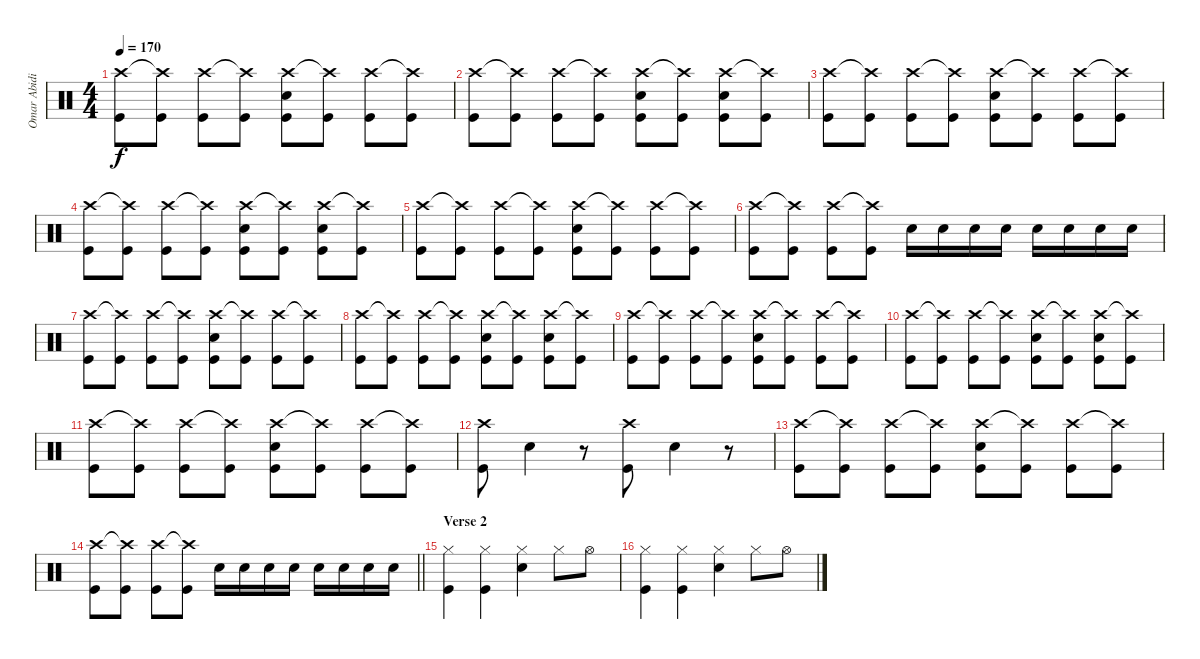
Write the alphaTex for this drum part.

\track ("Omar Abidi" "Omar Abidi") {instrument percussion}
\staff {score}
\articulation defaults
\ts (4 4)
\tempo 170
\clef neutral
\ks c
("Crash high (hit)" "Kick (hit)").8{dy f} ("Crash high (hit)"{t} "Kick (hit)").8 ("Crash high (hit)" "Kick (hit)").8 ("Crash high (hit)"{t} "Kick (hit)").8 ("Crash high (hit)" "Snare (hit) 2" "Kick (hit)").8 ("Crash high (hit)"{t} "Kick (hit)").8 ("Crash high (hit)" "Kick (hit)").8 ("Crash high (hit)"{t} "Kick (hit)").8 |
("Crash high (hit)" "Kick (hit)").8 ("Crash high (hit)"{t} "Kick (hit)").8 ("Crash high (hit)" "Kick (hit)").8 ("Crash high (hit)"{t} "Kick (hit)").8 ("Crash high (hit)" "Snare (hit) 2" "Kick (hit)").8 ("Crash high (hit)"{t} "Kick (hit)").8 ("Crash high (hit)" "Snare (hit) 2" "Kick (hit)").8 ("Crash high (hit)"{t} "Kick (hit)").8 |
("Crash high (hit)" "Kick (hit)").8 ("Crash high (hit)"{t} "Kick (hit)").8 ("Crash high (hit)" "Kick (hit)").8 ("Crash high (hit)"{t} "Kick (hit)").8 ("Crash high (hit)" "Snare (hit) 2" "Kick (hit)").8 ("Crash high (hit)"{t} "Kick (hit)").8 ("Crash high (hit)" "Kick (hit)").8 ("Crash high (hit)"{t} "Kick (hit)").8 |
("Crash high (hit)" "Kick (hit)").8 ("Crash high (hit)"{t} "Kick (hit)").8 ("Crash high (hit)" "Kick (hit)").8 ("Crash high (hit)"{t} "Kick (hit)").8 ("Crash high (hit)" "Snare (hit) 2" "Kick (hit)").8 ("Crash high (hit)"{t} "Kick (hit)").8 ("Crash high (hit)" "Snare (hit) 2" "Kick (hit)").8 ("Crash high (hit)"{t} "Kick (hit)").8 |
("Crash high (hit)" "Kick (hit)").8 ("Crash high (hit)"{t} "Kick (hit)").8 ("Crash high (hit)" "Kick (hit)").8 ("Crash high (hit)"{t} "Kick (hit)").8 ("Crash high (hit)" "Snare (hit) 2" "Kick (hit)").8 ("Crash high (hit)"{t} "Kick (hit)").8 ("Crash high (hit)" "Kick (hit)").8 ("Crash high (hit)"{t} "Kick (hit)").8 |
("Crash high (hit)" "Kick (hit)").8 ("Crash high (hit)"{t} "Kick (hit)").8 ("Crash high (hit)" "Kick (hit)").8 ("Crash high (hit)"{t} "Kick (hit)").8 "Snare (hit) 2".16 "Snare (hit) 2".16 "Snare (hit) 2".16 "Snare (hit) 2".16 "Snare (hit) 2".16 "Snare (hit) 2".16 "Snare (hit) 2".16 "Snare (hit) 2".16 |
("Crash high (hit)" "Kick (hit)").8 ("Crash high (hit)"{t} "Kick (hit)").8 ("Crash high (hit)" "Kick (hit)").8 ("Crash high (hit)"{t} "Kick (hit)").8 ("Crash high (hit)" "Snare (hit) 2" "Kick (hit)").8 ("Crash high (hit)"{t} "Kick (hit)").8 ("Crash high (hit)" "Kick (hit)").8 ("Crash high (hit)"{t} "Kick (hit)").8 |
("Crash high (hit)" "Kick (hit)").8 ("Crash high (hit)"{t} "Kick (hit)").8 ("Crash high (hit)" "Kick (hit)").8 ("Crash high (hit)"{t} "Kick (hit)").8 ("Crash high (hit)" "Snare (hit) 2" "Kick (hit)").8 ("Crash high (hit)"{t} "Kick (hit)").8 ("Crash high (hit)" "Snare (hit) 2" "Kick (hit)").8 ("Crash high (hit)"{t} "Kick (hit)").8 |
("Crash high (hit)" "Kick (hit)").8 ("Crash high (hit)"{t} "Kick (hit)").8 ("Crash high (hit)" "Kick (hit)").8 ("Crash high (hit)"{t} "Kick (hit)").8 ("Crash high (hit)" "Snare (hit) 2" "Kick (hit)").8 ("Crash high (hit)"{t} "Kick (hit)").8 ("Crash high (hit)" "Kick (hit)").8 ("Crash high (hit)"{t} "Kick (hit)").8 |
("Crash high (hit)" "Kick (hit)").8 ("Crash high (hit)"{t} "Kick (hit)").8 ("Crash high (hit)" "Kick (hit)").8 ("Crash high (hit)"{t} "Kick (hit)").8 ("Crash high (hit)" "Snare (hit) 2" "Kick (hit)").8 ("Crash high (hit)"{t} "Kick (hit)").8 ("Crash high (hit)" "Snare (hit) 2" "Kick (hit)").8 ("Crash high (hit)"{t} "Kick (hit)").8 |
("Crash high (hit)" "Kick (hit)").8 ("Crash high (hit)"{t} "Kick (hit)").8 ("Crash high (hit)" "Kick (hit)").8 ("Crash high (hit)"{t} "Kick (hit)").8 ("Crash high (hit)" "Snare (hit) 2" "Kick (hit)").8 ("Crash high (hit)"{t} "Kick (hit)").8 ("Crash high (hit)" "Kick (hit)").8 ("Crash high (hit)"{t} "Kick (hit)").8 |
("Crash high (hit)" "Kick (hit)").8 "Snare (hit) 2".4 r.8 ("Crash high (hit)" "Kick (hit)").8 "Snare (hit) 2".4 r.8 |
("Crash high (hit)" "Kick (hit)").8 ("Crash high (hit)"{t} "Kick (hit)").8 ("Crash high (hit)" "Kick (hit)").8 ("Crash high (hit)"{t} "Kick (hit)").8 ("Crash high (hit)" "Snare (hit) 2" "Kick (hit)").8 ("Crash high (hit)"{t} "Kick (hit)").8 ("Crash high (hit)" "Kick (hit)").8 ("Crash high (hit)"{t} "Kick (hit)").8 |
\barLineRight lightlight
("Crash high (hit)" "Kick (hit)").8 ("Crash high (hit)"{t} "Kick (hit)").8 ("Crash high (hit)" "Kick (hit)").8 ("Crash high (hit)"{t} "Kick (hit)").8 "Snare (hit) 2".16 "Snare (hit) 2".16 "Snare (hit) 2".16 "Snare (hit) 2".16 "Snare (hit) 2".16 "Snare (hit) 2".16 "Snare (hit) 2".16 "Snare (hit) 2".16 |
\section ("" "Verse 2")
("Hi-Hat (closed)" "Kick (hit)").4 ("Hi-Hat (closed)" "Kick (hit)").4 ("Hi-Hat (closed)" "Snare (hit) 2").4 "Hi-Hat (closed)".8 "Hi-Hat (open)".8 |
("Hi-Hat (closed)" "Kick (hit)").4 ("Hi-Hat (closed)" "Kick (hit)").4 ("Hi-Hat (closed)" "Snare (hit) 2").4 "Hi-Hat (closed)".8 "Hi-Hat (open)".8
